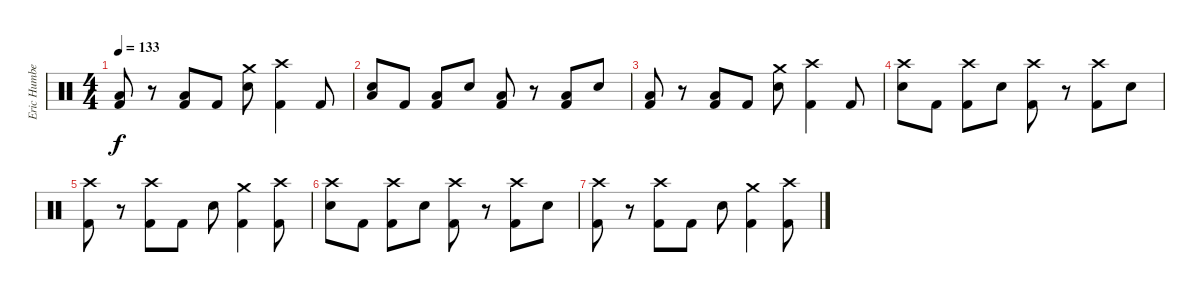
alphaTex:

\track ("Eric Humbert (Drums)" "Eric Humbe") {instrument percussion}
\staff {score}
\articulation defaults
\ts (4 4)
\tempo 133
\clef neutral
\ks c
("Low Floor Tom (hit)" "Kick (hit) 2").8{dy f} r.8 ("Low Floor Tom (hit)" "Kick (hit) 2").8 "Kick (hit) 2".8 ("Crash medium (hit)" "Electric Snare (hit)").8 ("Crash high (hit)" "Kick (hit) 2").4 "Kick (hit) 2".8 |
("Low Floor Tom (hit)" "Electric Snare (hit)").8 "Kick (hit) 2".8 ("Low Floor Tom (hit)" "Kick (hit) 2").8 "Electric Snare (hit)".8 ("Low Floor Tom (hit)" "Kick (hit) 2").8 r.8 ("Low Floor Tom (hit)" "Kick (hit) 2").8 "Electric Snare (hit)".8 |
("Low Floor Tom (hit)" "Kick (hit) 2").8 r.8 ("Low Floor Tom (hit)" "Kick (hit) 2").8 "Kick (hit) 2".8 ("Crash medium (hit)" "Electric Snare (hit)").8 ("Crash high (hit)" "Kick (hit) 2").4 "Kick (hit) 2".8 |
("Crash high (hit)" "Electric Snare (hit)").8 "Kick (hit) 2".8 ("Crash high (hit)" "Kick (hit) 2").8 "Electric Snare (hit)".8 ("Crash high (hit)" "Kick (hit) 2").8 r.8 ("Crash high (hit)" "Kick (hit) 2").8 "Electric Snare (hit)".8 |
("Crash high (hit)" "Kick (hit) 2").8 r.8 ("Crash high (hit)" "Kick (hit) 2").8 "Kick (hit) 2".8 "Electric Snare (hit)".8 ("Crash medium (hit)" "Kick (hit) 2").4 ("Crash high (hit)" "Kick (hit) 2").8 |
("Crash high (hit)" "Electric Snare (hit)").8 "Kick (hit) 2".8 ("Crash high (hit)" "Kick (hit) 2").8 "Electric Snare (hit)".8 ("Crash high (hit)" "Kick (hit) 2").8 r.8 ("Crash high (hit)" "Kick (hit) 2").8 "Electric Snare (hit)".8 |
("Crash high (hit)" "Kick (hit) 2").8 r.8 ("Crash high (hit)" "Kick (hit) 2").8 "Kick (hit) 2".8 "Electric Snare (hit)".8 ("Crash medium (hit)" "Kick (hit) 2").4 ("Crash high (hit)" "Kick (hit) 2").8
